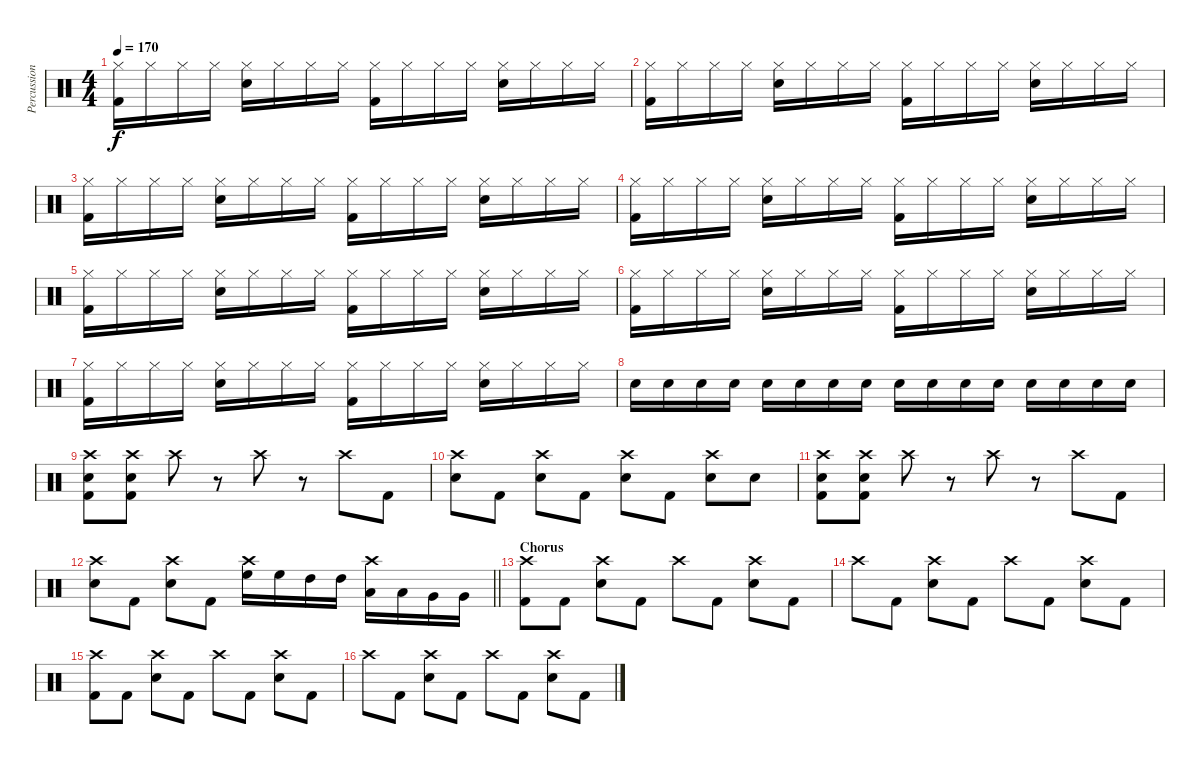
\track ("Percussion" "Percussion") {instrument percussion}
\staff {score}
\articulation defaults
\ts (4 4)
\tempo 170
\clef neutral
\ks c
("Hi-Hat (closed)" "Kick (hit) 2").16{dy f} "Hi-Hat (closed)".16 "Hi-Hat (closed)".16 "Hi-Hat (closed)".16 ("Hi-Hat (closed)" "Electric Snare (hit)").16 "Hi-Hat (closed)".16 "Hi-Hat (closed)".16 "Hi-Hat (closed)".16 ("Hi-Hat (closed)" "Kick (hit) 2").16 "Hi-Hat (closed)".16 "Hi-Hat (closed)".16 "Hi-Hat (closed)".16 ("Hi-Hat (closed)" "Electric Snare (hit)").16 "Hi-Hat (closed)".16 "Hi-Hat (closed)".16 "Hi-Hat (closed)".16 |
("Hi-Hat (closed)" "Kick (hit) 2").16 "Hi-Hat (closed)".16 "Hi-Hat (closed)".16 "Hi-Hat (closed)".16 ("Hi-Hat (closed)" "Electric Snare (hit)").16 "Hi-Hat (closed)".16 "Hi-Hat (closed)".16 "Hi-Hat (closed)".16 ("Hi-Hat (closed)" "Kick (hit) 2").16 "Hi-Hat (closed)".16 "Hi-Hat (closed)".16 "Hi-Hat (closed)".16 ("Hi-Hat (closed)" "Electric Snare (hit)").16 "Hi-Hat (closed)".16 "Hi-Hat (closed)".16 "Hi-Hat (closed)".16 |
("Hi-Hat (closed)" "Kick (hit) 2").16 "Hi-Hat (closed)".16 "Hi-Hat (closed)".16 "Hi-Hat (closed)".16 ("Hi-Hat (closed)" "Electric Snare (hit)").16 "Hi-Hat (closed)".16 "Hi-Hat (closed)".16 "Hi-Hat (closed)".16 ("Hi-Hat (closed)" "Kick (hit) 2").16 "Hi-Hat (closed)".16 "Hi-Hat (closed)".16 "Hi-Hat (closed)".16 ("Hi-Hat (closed)" "Electric Snare (hit)").16 "Hi-Hat (closed)".16 "Hi-Hat (closed)".16 "Hi-Hat (closed)".16 |
("Hi-Hat (closed)" "Kick (hit) 2").16 "Hi-Hat (closed)".16 "Hi-Hat (closed)".16 "Hi-Hat (closed)".16 ("Hi-Hat (closed)" "Electric Snare (hit)").16 "Hi-Hat (closed)".16 "Hi-Hat (closed)".16 "Hi-Hat (closed)".16 ("Hi-Hat (closed)" "Kick (hit) 2").16 "Hi-Hat (closed)".16 "Hi-Hat (closed)".16 "Hi-Hat (closed)".16 ("Hi-Hat (closed)" "Electric Snare (hit)").16 "Hi-Hat (closed)".16 "Hi-Hat (closed)".16 "Hi-Hat (closed)".16 |
("Hi-Hat (closed)" "Kick (hit) 2").16 "Hi-Hat (closed)".16 "Hi-Hat (closed)".16 "Hi-Hat (closed)".16 ("Hi-Hat (closed)" "Electric Snare (hit)").16 "Hi-Hat (closed)".16 "Hi-Hat (closed)".16 "Hi-Hat (closed)".16 ("Hi-Hat (closed)" "Kick (hit) 2").16 "Hi-Hat (closed)".16 "Hi-Hat (closed)".16 "Hi-Hat (closed)".16 ("Hi-Hat (closed)" "Electric Snare (hit)").16 "Hi-Hat (closed)".16 "Hi-Hat (closed)".16 "Hi-Hat (closed)".16 |
("Hi-Hat (closed)" "Kick (hit) 2").16 "Hi-Hat (closed)".16 "Hi-Hat (closed)".16 "Hi-Hat (closed)".16 ("Hi-Hat (closed)" "Electric Snare (hit)").16 "Hi-Hat (closed)".16 "Hi-Hat (closed)".16 "Hi-Hat (closed)".16 ("Hi-Hat (closed)" "Kick (hit) 2").16 "Hi-Hat (closed)".16 "Hi-Hat (closed)".16 "Hi-Hat (closed)".16 ("Hi-Hat (closed)" "Electric Snare (hit)").16 "Hi-Hat (closed)".16 "Hi-Hat (closed)".16 "Hi-Hat (closed)".16 |
("Hi-Hat (closed)" "Kick (hit) 2").16 "Hi-Hat (closed)".16 "Hi-Hat (closed)".16 "Hi-Hat (closed)".16 ("Hi-Hat (closed)" "Electric Snare (hit)").16 "Hi-Hat (closed)".16 "Hi-Hat (closed)".16 "Hi-Hat (closed)".16 ("Hi-Hat (closed)" "Kick (hit) 2").16 "Hi-Hat (closed)".16 "Hi-Hat (closed)".16 "Hi-Hat (closed)".16 ("Hi-Hat (closed)" "Electric Snare (hit)").16 "Hi-Hat (closed)".16 "Hi-Hat (closed)".16 "Hi-Hat (closed)".16 |
"Electric Snare (hit)".16{volume 13} "Electric Snare (hit)".16 "Electric Snare (hit)".16 "Electric Snare (hit)".16 "Electric Snare (hit)".16 "Electric Snare (hit)".16 "Electric Snare (hit)".16 "Electric Snare (hit)".16 "Electric Snare (hit)".16 "Electric Snare (hit)".16 "Electric Snare (hit)".16 "Electric Snare (hit)".16 "Electric Snare (hit)".16 "Electric Snare (hit)".16 "Electric Snare (hit)".16 "Electric Snare (hit)".16 |
("Crash high (hit)" "Electric Snare (hit)" "Kick (hit) 2").8 ("Crash high (hit)" "Electric Snare (hit)" "Kick (hit) 2").8 "Crash high (hit)".8 r.8 "Crash high (hit)".8 r.8 "Crash high (hit)".8 "Kick (hit) 2".8 |
("Crash high (hit)" "Electric Snare (hit)").8 "Kick (hit) 2".8 ("Crash high (hit)" "Electric Snare (hit)").8 "Kick (hit) 2".8 ("Crash high (hit)" "Electric Snare (hit)").8 "Kick (hit) 2".8 ("Crash high (hit)" "Electric Snare (hit)").8 "Electric Snare (hit)".8 |
("Crash high (hit)" "Electric Snare (hit)" "Kick (hit) 2").8 ("Crash high (hit)" "Electric Snare (hit)" "Kick (hit) 2").8 "Crash high (hit)".8 r.8 "Crash high (hit)".8 r.8 "Crash high (hit)".8 "Kick (hit) 2".8 |
\barLineRight lightlight
("Crash high (hit)" "Electric Snare (hit)").8 "Kick (hit) 2".8 ("Crash high (hit)" "Electric Snare (hit)").8 "Kick (hit) 2".8 ("Crash high (hit)" "High Floor Tom (hit)").16 "High Floor Tom (hit)".16 "High Tom (hit)".16 "High Tom (hit)".16 ("Crash high (hit)" "Low Tom (hit)").16 "Low Tom (hit)".16 "Very Low Tom (hit)".16 "Very Low Tom (hit)".16 |
\section ("" "Chorus")
("Crash high (hit)" "Kick (hit) 2").8 "Kick (hit) 2".8 ("Crash high (hit)" "Electric Snare (hit)").8 "Kick (hit) 2".8 "Crash high (hit)".8 "Kick (hit) 2".8 ("Crash high (hit)" "Electric Snare (hit)").8 "Kick (hit) 2".8 |
"Crash high (hit)".8 "Kick (hit) 2".8 ("Crash high (hit)" "Electric Snare (hit)").8 "Kick (hit) 2".8 "Crash high (hit)".8 "Kick (hit) 2".8 ("Crash high (hit)" "Electric Snare (hit)").8 "Kick (hit) 2".8 |
("Crash high (hit)" "Kick (hit) 2").8 "Kick (hit) 2".8 ("Crash high (hit)" "Electric Snare (hit)").8 "Kick (hit) 2".8 "Crash high (hit)".8 "Kick (hit) 2".8 ("Crash high (hit)" "Electric Snare (hit)").8 "Kick (hit) 2".8 |
"Crash high (hit)".8 "Kick (hit) 2".8 ("Crash high (hit)" "Electric Snare (hit)").8 "Kick (hit) 2".8 "Crash high (hit)".8 "Kick (hit) 2".8 ("Crash high (hit)" "Electric Snare (hit)").8 "Kick (hit) 2".8
